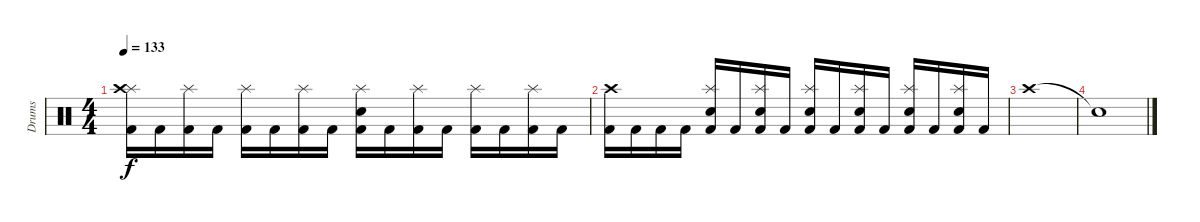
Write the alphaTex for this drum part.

\track ("Drums" "Drums") {instrument percussion}
\staff {score}
\articulation defaults
\ts (4 4)
\tempo 133
\clef neutral
\ks c
("Kick (hit) 2" "Splash (hit)" "Crash high (hit)").16{dy f} "Kick (hit) 2".16 ("Kick (hit) 2" "Splash (hit)").16 "Kick (hit) 2".16 ("Kick (hit) 2" "Splash (hit)").16 "Kick (hit) 2".16 ("Kick (hit) 2" "Splash (hit)").16 "Kick (hit) 2".16 ("Kick (hit) 2" "Snare (hit) 2" "Splash (hit)").16 "Kick (hit) 2".16 ("Kick (hit) 2" "Splash (hit)").16 "Kick (hit) 2".16 ("Kick (hit) 2" "Splash (hit)").16 "Kick (hit) 2".16 ("Kick (hit) 2" "Splash (hit)").16 "Kick (hit) 2".16 |
("Kick (hit) 2" "Crash high (hit)").16 "Kick (hit) 2".16 "Kick (hit) 2".16 "Kick (hit) 2".16 ("Kick (hit) 2" "Snare (hit) 2" "Splash (hit)").16 "Kick (hit) 2".16 ("Kick (hit) 2" "Snare (hit) 2" "Splash (hit)").16 "Kick (hit) 2".16 ("Kick (hit) 2" "Snare (hit) 2" "Splash (hit)").16 "Kick (hit) 2".16 ("Kick (hit) 2" "Snare (hit) 2" "Splash (hit)").16 "Kick (hit) 2".16 ("Kick (hit) 2" "Snare (hit) 2" "Splash (hit)").16 "Kick (hit) 2".16 ("Kick (hit) 2" "Snare (hit) 2" "Splash (hit)").16 "Kick (hit) 2".16 |
"Crash high (hit)".1 |
"Snare (hit)"{t}.1
